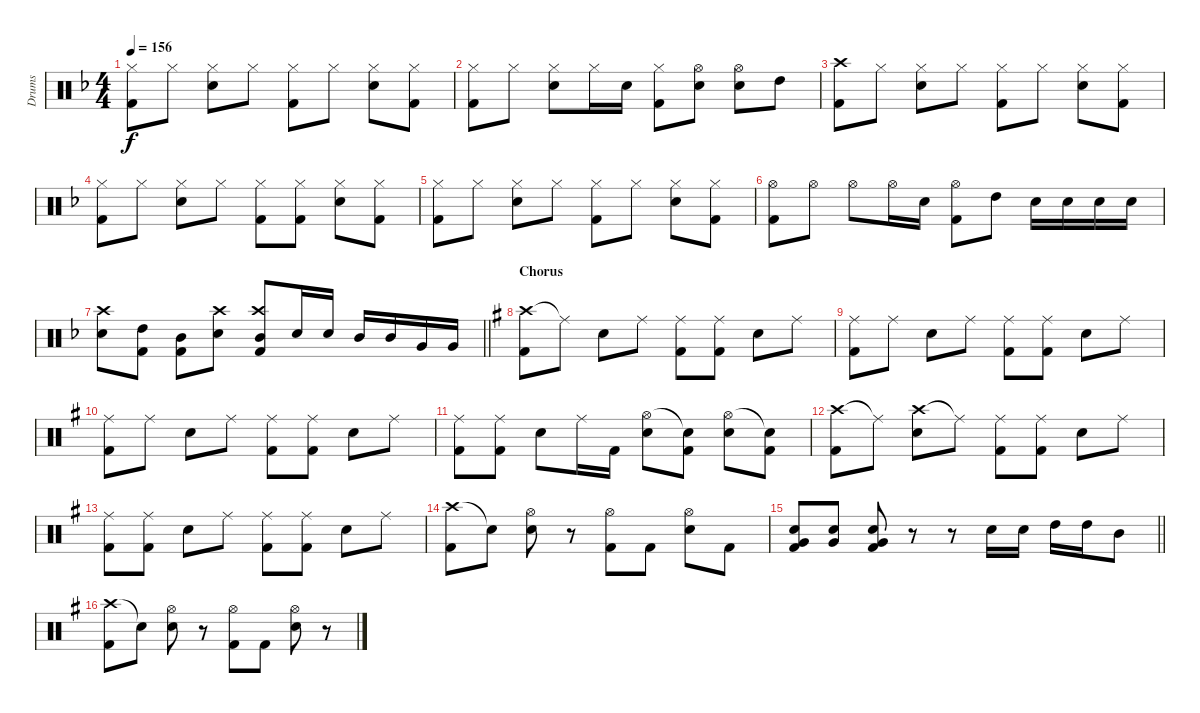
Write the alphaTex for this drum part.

\track ("Drums" "Drums") {instrument percussion}
\staff {score}
\articulation defaults
\ts (4 4)
\tempo 156
\clef neutral
\ks f
("Hi-Hat (closed)" "Kick (hit) 2").8{dy f} "Hi-Hat (closed)".8 ("Hi-Hat (closed)" "Snare (hit) 2").8 "Hi-Hat (closed)".8 ("Hi-Hat (closed)" "Kick (hit) 2").8 "Hi-Hat (closed)".8 ("Hi-Hat (closed)" "Snare (hit) 2").8 ("Hi-Hat (closed)" "Kick (hit) 2").8 |
("Hi-Hat (closed)" "Kick (hit) 2").8 "Hi-Hat (closed)".8 ("Hi-Hat (closed)" "Snare (hit) 2").8 "Hi-Hat (closed)".16 "Snare (hit) 2".16 ("Hi-Hat (closed)" "Kick (hit) 2").8 ("Hi-Hat (open)" "Snare (hit) 2").8 ("Hi-Hat (open)" "Snare (hit) 2").8 "High Tom (hit)".8 |
("Crash high (hit)" "Kick (hit) 2").8 "Hi-Hat (closed)".8 ("Hi-Hat (closed)" "Snare (hit) 2").8 "Hi-Hat (closed)".8 ("Hi-Hat (closed)" "Kick (hit) 2").8 "Hi-Hat (closed)".8 ("Hi-Hat (closed)" "Snare (hit) 2").8 ("Hi-Hat (closed)" "Kick (hit) 2").8 |
("Hi-Hat (closed)" "Kick (hit) 2").8 "Hi-Hat (closed)".8 ("Hi-Hat (closed)" "Snare (hit) 2").8 "Hi-Hat (closed)".8 ("Hi-Hat (closed)" "Kick (hit) 2").8 ("Hi-Hat (closed)" "Kick (hit) 2").8 ("Hi-Hat (closed)" "Snare (hit) 2").8 ("Hi-Hat (closed)" "Kick (hit) 2").8 |
("Hi-Hat (closed)" "Kick (hit) 2").8 "Hi-Hat (closed)".8 ("Hi-Hat (closed)" "Snare (hit) 2").8 "Hi-Hat (closed)".8 ("Hi-Hat (closed)" "Kick (hit) 2").8 "Hi-Hat (closed)".8 ("Hi-Hat (closed)" "Snare (hit) 2").8 ("Hi-Hat (closed)" "Kick (hit) 2").8 |
("Hi-Hat (open)" "Kick (hit) 2").8 "Hi-Hat (open)".8 "Hi-Hat (open)".8 "Hi-Hat (open)".16 "Snare (hit) 2".16 ("Hi-Hat (open)" "Kick (hit) 2").8 "High Tom (hit)".8 "Snare (hit) 2".16 "Snare (hit) 2".16 "Snare (hit) 2".16 "Snare (hit) 2".16 |
\barLineRight lightlight
("Crash high (hit)" "Snare (hit) 2").8 ("High Tom (hit)" "Kick (hit) 2").8 ("Mid Tom (hit)" "Kick (hit) 2").8 ("Crash high (hit)" "Snare (hit) 2").8 ("Crash high (hit)" "Mid Tom (hit)" "Kick (hit) 2").8 "Snare (hit) 2".16 "Snare (hit) 2".16 "Mid Tom (hit)".16 "Mid Tom (hit)".16 "Very Low Tom (hit)".16 "Very Low Tom (hit)".16 |
\section ("" "Chorus")
\ks g
("Crash high (hit)" "Kick (hit) 2").8 "Ride (middle)"{t}.8 "Snare (hit) 2".8 "Ride (middle)".8 ("Ride (middle)" "Kick (hit) 2").8 ("Ride (middle)" "Kick (hit) 2").8 "Snare (hit) 2".8 "Ride (middle)".8 |
("Ride (middle)" "Kick (hit) 2").8 "Ride (middle)".8 "Snare (hit) 2".8 "Ride (middle)".8 ("Ride (middle)" "Kick (hit) 2").8 ("Ride (middle)" "Kick (hit) 2").8 "Snare (hit) 2".8 "Ride (middle)".8 |
("Ride (middle)" "Kick (hit) 2").8 "Ride (middle)".8 "Snare (hit) 2".8 "Ride (middle)".8 ("Ride (middle)" "Kick (hit) 2").8 ("Ride (middle)" "Kick (hit) 2").8 "Snare (hit) 2".8 "Ride (middle)".8 |
("Ride (middle)" "Kick (hit) 2").8 ("Ride (middle)" "Kick (hit) 2").8 "Snare (hit) 2".8 "Ride (middle)".16 "Kick (hit) 2".16 ("Hi-Hat (open)" "Snare (hit) 2").8 ("Snare (hit)"{t} "Kick (hit) 2").8 ("Hi-Hat (open)" "Snare (hit) 2").8 ("Snare (hit)"{t} "Kick (hit) 2").8 |
("Crash high (hit)" "Kick (hit) 2").8 "Ride (middle)"{t}.8 ("Crash high (hit)" "Snare (hit) 2").8 "Ride (middle)"{t}.8 ("Ride (middle)" "Kick (hit) 2").8 ("Ride (middle)" "Kick (hit) 2").8 "Snare (hit) 2".8 "Ride (middle)".8 |
("Ride (middle)" "Kick (hit) 2").8 ("Ride (middle)" "Kick (hit) 2").8 "Snare (hit) 2".8 "Ride (middle)".8 ("Ride (middle)" "Kick (hit) 2").8 ("Ride (middle)" "Kick (hit) 2").8 "Snare (hit) 2".8 "Ride (middle)".8 |
("Crash high (hit)" "Kick (hit) 2").8 "Snare (hit)"{t}.8 ("Hi-Hat (open)" "Snare (hit) 2").8 r.8 ("Hi-Hat (open)" "Kick (hit) 2").8 "Kick (hit) 2".8 ("Hi-Hat (open)" "Snare (hit) 2").8 "Kick (hit) 2".8 |
\barLineRight lightlight
("Snare (hit) 2" "Very Low Tom (hit)" "Kick (hit) 2").8 ("Snare (hit) 2" "Very Low Tom (hit)").8 ("Snare (hit) 2" "Very Low Tom (hit)" "Kick (hit) 2").8 r.8 r.8 "Snare (hit) 2".16 "Snare (hit) 2".16 "High Tom (hit)".16 "High Tom (hit)".16 "Mid Tom (hit)".8 |
("Crash high (hit)" "Kick (hit) 2").8 "Snare (hit)"{t}.8 ("Hi-Hat (open)" "Snare (hit) 2").8 r.8 ("Hi-Hat (open)" "Kick (hit) 2").8 "Kick (hit) 2".8 ("Hi-Hat (open)" "Snare (hit) 2").8 r.8
